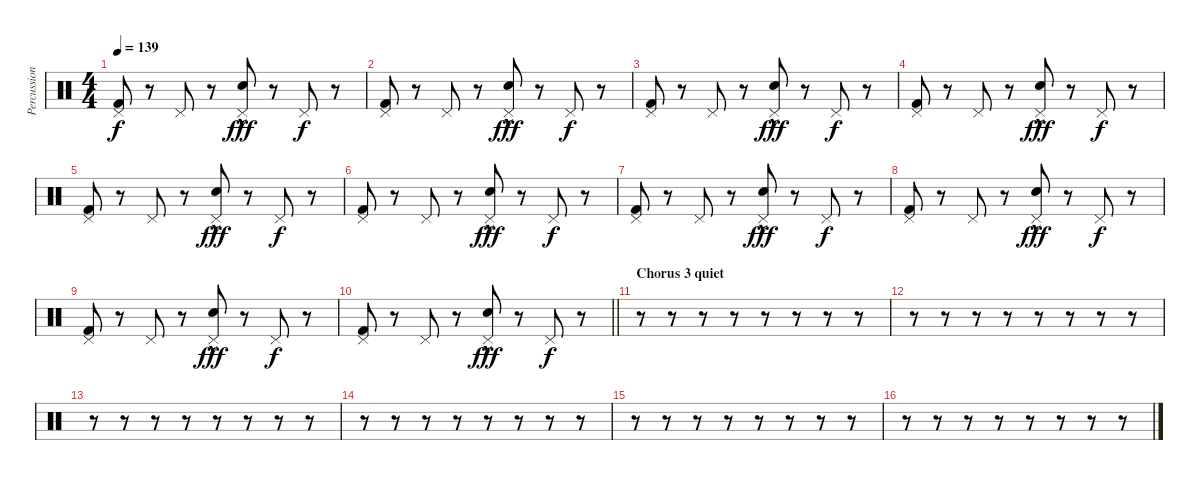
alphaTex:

\track ("Percussion" "Percussion") {instrument percussion}
\staff {score}
\articulation defaults
\ts (4 4)
\tempo 139
\clef neutral
\ks c
("Kick (hit) 2" "Pedal Hi-Hat (hit)").8{dy f} r.8 "Pedal Hi-Hat (hit)".8 r.8 ("Electric Snare (hit)"{hac} "Pedal Hi-Hat (hit)").8{dy fff} r.8 "Pedal Hi-Hat (hit)".8{dy f} r.8 |
("Kick (hit) 2" "Pedal Hi-Hat (hit)").8 r.8 "Pedal Hi-Hat (hit)".8 r.8 ("Electric Snare (hit)"{hac} "Pedal Hi-Hat (hit)").8{dy fff} r.8 "Pedal Hi-Hat (hit)".8{dy f} r.8 |
("Kick (hit) 2" "Pedal Hi-Hat (hit)").8 r.8 "Pedal Hi-Hat (hit)".8 r.8 ("Electric Snare (hit)"{hac} "Pedal Hi-Hat (hit)").8{dy fff} r.8 "Pedal Hi-Hat (hit)".8{dy f} r.8 |
("Kick (hit) 2" "Pedal Hi-Hat (hit)").8 r.8 "Pedal Hi-Hat (hit)".8 r.8 ("Electric Snare (hit)"{hac} "Pedal Hi-Hat (hit)").8{dy fff} r.8 "Pedal Hi-Hat (hit)".8{dy f} r.8 |
("Kick (hit) 2" "Pedal Hi-Hat (hit)").8 r.8 "Pedal Hi-Hat (hit)".8 r.8 ("Electric Snare (hit)"{hac} "Pedal Hi-Hat (hit)").8{dy fff} r.8 "Pedal Hi-Hat (hit)".8{dy f} r.8 |
("Kick (hit) 2" "Pedal Hi-Hat (hit)").8 r.8 "Pedal Hi-Hat (hit)".8 r.8 ("Electric Snare (hit)"{hac} "Pedal Hi-Hat (hit)").8{dy fff} r.8 "Pedal Hi-Hat (hit)".8{dy f} r.8 |
("Kick (hit) 2" "Pedal Hi-Hat (hit)").8 r.8 "Pedal Hi-Hat (hit)".8 r.8 ("Electric Snare (hit)"{hac} "Pedal Hi-Hat (hit)").8{dy fff} r.8 "Pedal Hi-Hat (hit)".8{dy f} r.8 |
("Kick (hit) 2" "Pedal Hi-Hat (hit)").8 r.8 "Pedal Hi-Hat (hit)".8 r.8 ("Electric Snare (hit)"{hac} "Pedal Hi-Hat (hit)").8{dy fff} r.8 "Pedal Hi-Hat (hit)".8{dy f} r.8 |
("Kick (hit) 2" "Pedal Hi-Hat (hit)").8 r.8 "Pedal Hi-Hat (hit)".8 r.8 ("Electric Snare (hit)"{hac} "Pedal Hi-Hat (hit)").8{dy fff} r.8 "Pedal Hi-Hat (hit)".8{dy f} r.8 |
\barLineRight lightlight
("Kick (hit) 2" "Pedal Hi-Hat (hit)").8 r.8 "Pedal Hi-Hat (hit)".8 r.8 ("Electric Snare (hit)"{hac} "Pedal Hi-Hat (hit)").8{dy fff} r.8 "Pedal Hi-Hat (hit)".8{dy f} r.8 |
\section ("" "Chorus 3 quiet")
r.8 r.8 r.8 r.8 r.8 r.8 r.8 r.8 |
r.8 r.8 r.8 r.8 r.8 r.8 r.8 r.8 |
r.8 r.8 r.8 r.8 r.8 r.8 r.8 r.8 |
r.8 r.8 r.8 r.8 r.8 r.8 r.8 r.8 |
r.8 r.8 r.8 r.8 r.8 r.8 r.8 r.8 |
r.8 r.8 r.8 r.8 r.8 r.8 r.8 r.8
